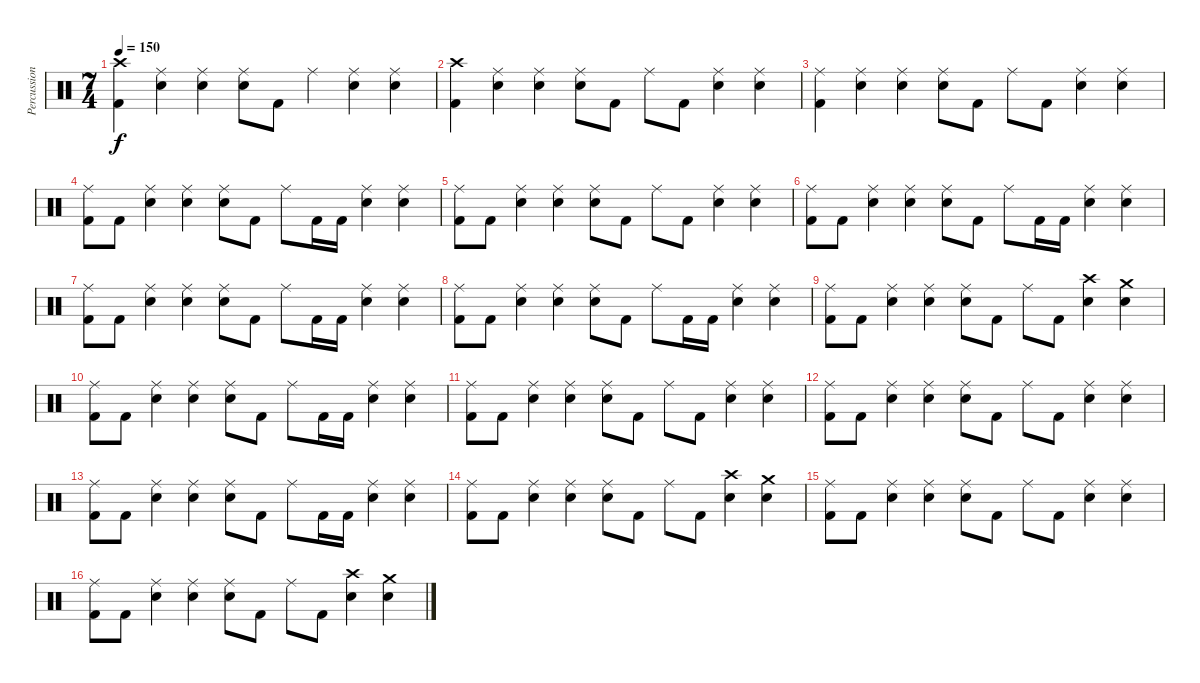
\track ("Percussion" "Percussion") {instrument percussion}
\staff {score}
\articulation defaults
\ts (7 4)
\tempo 150
\clef neutral
\ks c
("Kick (hit) 2" "Crash high (hit)").4{dy f} ("Snare (hit) 2" "Ride (middle)").4 ("Snare (hit) 2" "Ride (middle)").4 ("Snare (hit) 2" "Ride (middle)").8 "Kick (hit) 2".8 "Ride (middle)".4 ("Snare (hit) 2" "Ride (middle)").4 ("Snare (hit) 2" "Ride (middle)").4 |
("Kick (hit) 2" "Crash high (hit)").4 ("Snare (hit) 2" "Ride (middle)").4 ("Snare (hit) 2" "Ride (middle)").4 ("Snare (hit) 2" "Ride (middle)").8 "Kick (hit) 2".8 "Ride (middle)".8 "Kick (hit) 2".8 ("Snare (hit) 2" "Ride (middle)").4 ("Snare (hit) 2" "Ride (middle)").4 |
("Kick (hit) 2" "Ride (middle)").4 ("Snare (hit) 2" "Ride (middle)").4 ("Snare (hit) 2" "Ride (middle)").4 ("Snare (hit) 2" "Ride (middle)").8 "Kick (hit) 2".8 "Ride (middle)".8 "Kick (hit) 2".8 ("Snare (hit) 2" "Ride (middle)").4 ("Snare (hit) 2" "Ride (middle)").4 |
("Kick (hit) 2" "Ride (middle)").8 "Kick (hit) 2".8 ("Snare (hit) 2" "Ride (middle)").4 ("Snare (hit) 2" "Ride (middle)").4 ("Snare (hit) 2" "Ride (middle)").8 "Kick (hit) 2".8 "Ride (middle)".8 "Kick (hit) 2".16 "Kick (hit) 2".16 ("Snare (hit) 2" "Ride (middle)").4 ("Snare (hit) 2" "Ride (middle)").4 |
("Kick (hit) 2" "Ride (middle)").8 "Kick (hit) 2".8 ("Snare (hit) 2" "Ride (middle)").4 ("Snare (hit) 2" "Ride (middle)").4 ("Snare (hit) 2" "Ride (middle)").8 "Kick (hit) 2".8 "Ride (middle)".8 "Kick (hit) 2".8 ("Snare (hit) 2" "Ride (middle)").4 ("Snare (hit) 2" "Ride (middle)").4 |
("Kick (hit) 2" "Ride (middle)").8 "Kick (hit) 2".8 ("Snare (hit) 2" "Ride (middle)").4 ("Snare (hit) 2" "Ride (middle)").4 ("Snare (hit) 2" "Ride (middle)").8 "Kick (hit) 2".8 "Ride (middle)".8 "Kick (hit) 2".16 "Kick (hit) 2".16 ("Snare (hit) 2" "Ride (middle)").4 ("Snare (hit) 2" "Ride (middle)").4 |
("Kick (hit) 2" "Ride (middle)").8 "Kick (hit) 2".8 ("Snare (hit) 2" "Ride (middle)").4 ("Snare (hit) 2" "Ride (middle)").4 ("Snare (hit) 2" "Ride (middle)").8 "Kick (hit) 2".8 "Ride (middle)".8 "Kick (hit) 2".16 "Kick (hit) 2".16 ("Snare (hit) 2" "Ride (middle)").4 ("Snare (hit) 2" "Ride (middle)").4 |
("Kick (hit) 2" "Ride (middle)").8 "Kick (hit) 2".8 ("Snare (hit) 2" "Ride (middle)").4 ("Snare (hit) 2" "Ride (middle)").4 ("Snare (hit) 2" "Ride (middle)").8 "Kick (hit) 2".8 "Ride (middle)".8 "Kick (hit) 2".16 "Kick (hit) 2".16 ("Snare (hit) 2" "Ride (middle)").4 ("Snare (hit) 2" "Ride (middle)").4 |
("Kick (hit) 2" "Ride (middle)").8 "Kick (hit) 2".8 ("Snare (hit) 2" "Ride (middle)").4 ("Snare (hit) 2" "Ride (middle)").4 ("Snare (hit) 2" "Ride (middle)").8 "Kick (hit) 2".8 "Ride (middle)".8 "Kick (hit) 2".8 ("Snare (hit) 2" "Crash high (hit)").4 ("Snare (hit) 2" "Crash medium (hit)").4 |
("Kick (hit) 2" "Ride (middle)").8 "Kick (hit) 2".8 ("Snare (hit) 2" "Ride (middle)").4 ("Snare (hit) 2" "Ride (middle)").4 ("Snare (hit) 2" "Ride (middle)").8 "Kick (hit) 2".8 "Ride (middle)".8 "Kick (hit) 2".16 "Kick (hit) 2".16 ("Snare (hit) 2" "Ride (middle)").4 ("Snare (hit) 2" "Ride (middle)").4 |
("Kick (hit) 2" "Ride (middle)").8 "Kick (hit) 2".8 ("Snare (hit) 2" "Ride (middle)").4 ("Snare (hit) 2" "Ride (middle)").4 ("Snare (hit) 2" "Ride (middle)").8 "Kick (hit) 2".8 "Ride (middle)".8 "Kick (hit) 2".8 ("Snare (hit) 2" "Ride (middle)").4 ("Snare (hit) 2" "Ride (middle)").4 |
("Kick (hit) 2" "Ride (middle)").8 "Kick (hit) 2".8 ("Snare (hit) 2" "Ride (middle)").4 ("Snare (hit) 2" "Ride (middle)").4 ("Snare (hit) 2" "Ride (middle)").8 "Kick (hit) 2".8 "Ride (middle)".8 "Kick (hit) 2".8 ("Snare (hit) 2" "Ride (middle)").4 ("Snare (hit) 2" "Ride (middle)").4 |
("Kick (hit) 2" "Ride (middle)").8 "Kick (hit) 2".8 ("Snare (hit) 2" "Ride (middle)").4 ("Snare (hit) 2" "Ride (middle)").4 ("Snare (hit) 2" "Ride (middle)").8 "Kick (hit) 2".8 "Ride (middle)".8 "Kick (hit) 2".16 "Kick (hit) 2".16 ("Snare (hit) 2" "Ride (middle)").4 ("Snare (hit) 2" "Ride (middle)").4 |
("Kick (hit) 2" "Ride (middle)").8 "Kick (hit) 2".8 ("Snare (hit) 2" "Ride (middle)").4 ("Snare (hit) 2" "Ride (middle)").4 ("Snare (hit) 2" "Ride (middle)").8 "Kick (hit) 2".8 "Ride (middle)".8 "Kick (hit) 2".8 ("Snare (hit) 2" "Crash high (hit)").4 ("Snare (hit) 2" "Crash medium (hit)").4 |
("Kick (hit) 2" "Ride (middle)").8 "Kick (hit) 2".8 ("Snare (hit) 2" "Ride (middle)").4 ("Snare (hit) 2" "Ride (middle)").4 ("Snare (hit) 2" "Ride (middle)").8 "Kick (hit) 2".8 "Ride (middle)".8 "Kick (hit) 2".8 ("Snare (hit) 2" "Ride (middle)").4 ("Snare (hit) 2" "Ride (middle)").4 |
("Kick (hit) 2" "Ride (middle)").8 "Kick (hit) 2".8 ("Snare (hit) 2" "Ride (middle)").4 ("Snare (hit) 2" "Ride (middle)").4 ("Snare (hit) 2" "Ride (middle)").8 "Kick (hit) 2".8 "Ride (middle)".8 "Kick (hit) 2".8 ("Snare (hit) 2" "Crash high (hit)").4 ("Snare (hit) 2" "Crash medium (hit)").4
